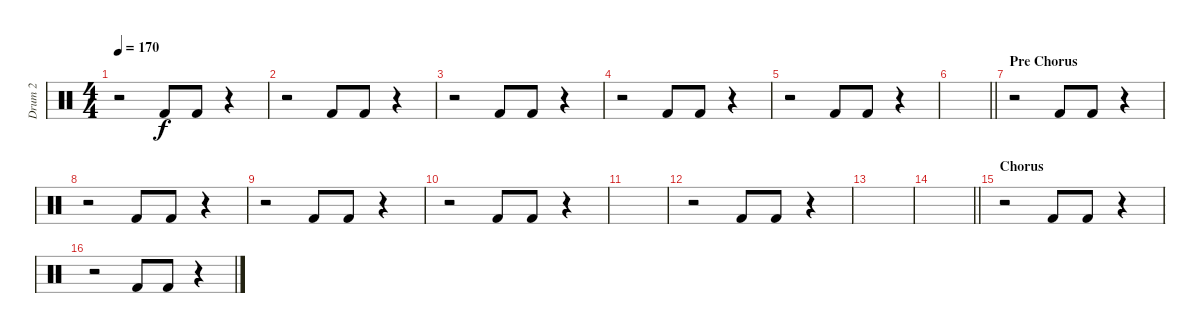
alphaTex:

\track ("Drum 2" "Drum 2") {instrument percussion}
\staff {score}
\articulation defaults
\ts (4 4)
\tempo 170
\clef neutral
\ks c
r.2{dy f} "Kick (hit) 2".8 "Kick (hit) 2".8 r.4 |
r.2 "Kick (hit) 2".8 "Kick (hit) 2".8 r.4 |
r.2 "Kick (hit) 2".8 "Kick (hit) 2".8 r.4 |
r.2 "Kick (hit) 2".8 "Kick (hit) 2".8 r.4 |
r.2 "Kick (hit) 2".8 "Kick (hit) 2".8 r.4 |
\barLineRight lightlight
|
\section ("" "Pre Chorus")
r.2 "Kick (hit) 2".8 "Kick (hit) 2".8 r.4 |
r.2 "Kick (hit) 2".8 "Kick (hit) 2".8 r.4 |
r.2 "Kick (hit) 2".8 "Kick (hit) 2".8 r.4 |
r.2 "Kick (hit) 2".8 "Kick (hit) 2".8 r.4 |
|
r.2 "Kick (hit) 2".8 "Kick (hit) 2".8 r.4 |
|
\barLineRight lightlight
|
\section ("" "Chorus")
r.2 "Kick (hit) 2".8 "Kick (hit) 2".8 r.4 |
r.2 "Kick (hit) 2".8 "Kick (hit) 2".8 r.4
